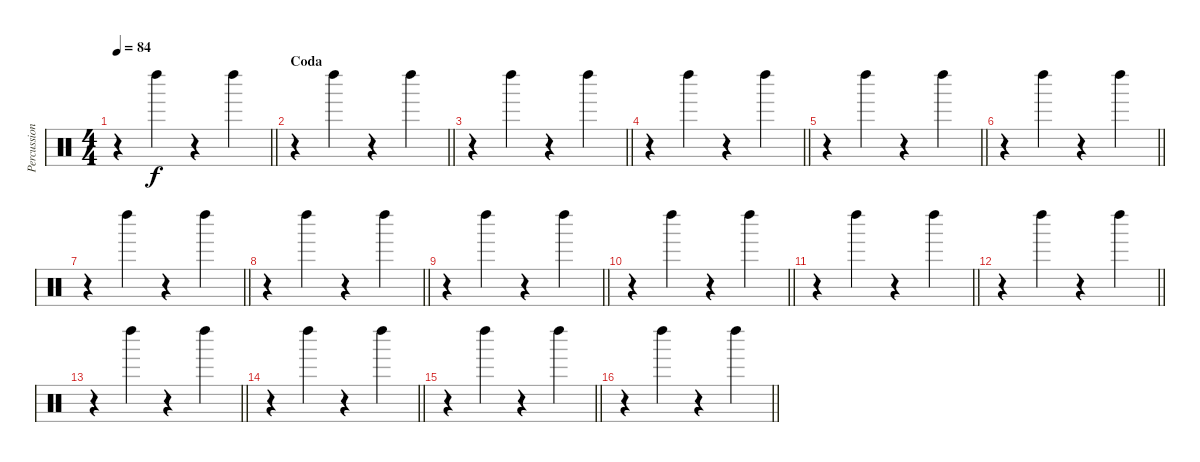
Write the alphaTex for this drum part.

\track ("Percussion" "Percussion") {instrument percussion}
\staff {score}
\articulation defaults
\ts (4 4)
\tempo 84
\clef neutral
\barLineRight lightlight
\ks c
r.4{dy f} "Left Maraca (hit)".4 r.4 "Left Maraca (hit)".4 |
\section ("" "Coda")
\barLineRight lightlight
r.4 "Left Maraca (hit)".4 r.4 "Left Maraca (hit)".4 |
\barLineRight lightlight
r.4 "Left Maraca (hit)".4 r.4 "Left Maraca (hit)".4 |
\barLineRight lightlight
r.4 "Left Maraca (hit)".4 r.4 "Left Maraca (hit)".4 |
\barLineRight lightlight
r.4 "Left Maraca (hit)".4 r.4 "Left Maraca (hit)".4 |
\barLineRight lightlight
r.4 "Left Maraca (hit)".4 r.4 "Left Maraca (hit)".4 |
\barLineRight lightlight
r.4 "Left Maraca (hit)".4 r.4 "Left Maraca (hit)".4 |
\barLineRight lightlight
r.4 "Left Maraca (hit)".4 r.4 "Left Maraca (hit)".4 |
\barLineRight lightlight
r.4 "Left Maraca (hit)".4 r.4 "Left Maraca (hit)".4 |
\barLineRight lightlight
r.4 "Left Maraca (hit)".4 r.4 "Left Maraca (hit)".4 |
\barLineRight lightlight
r.4 "Left Maraca (hit)".4 r.4 "Left Maraca (hit)".4 |
\barLineRight lightlight
r.4 "Left Maraca (hit)".4 r.4 "Left Maraca (hit)".4 |
\barLineRight lightlight
r.4 "Left Maraca (hit)".4 r.4 "Left Maraca (hit)".4 |
\barLineRight lightlight
r.4 "Left Maraca (hit)".4 r.4 "Left Maraca (hit)".4 |
\barLineRight lightlight
r.4 "Left Maraca (hit)".4 r.4 "Left Maraca (hit)".4 |
\barLineRight lightlight
r.4 "Left Maraca (hit)".4 r.4 "Left Maraca (hit)".4
